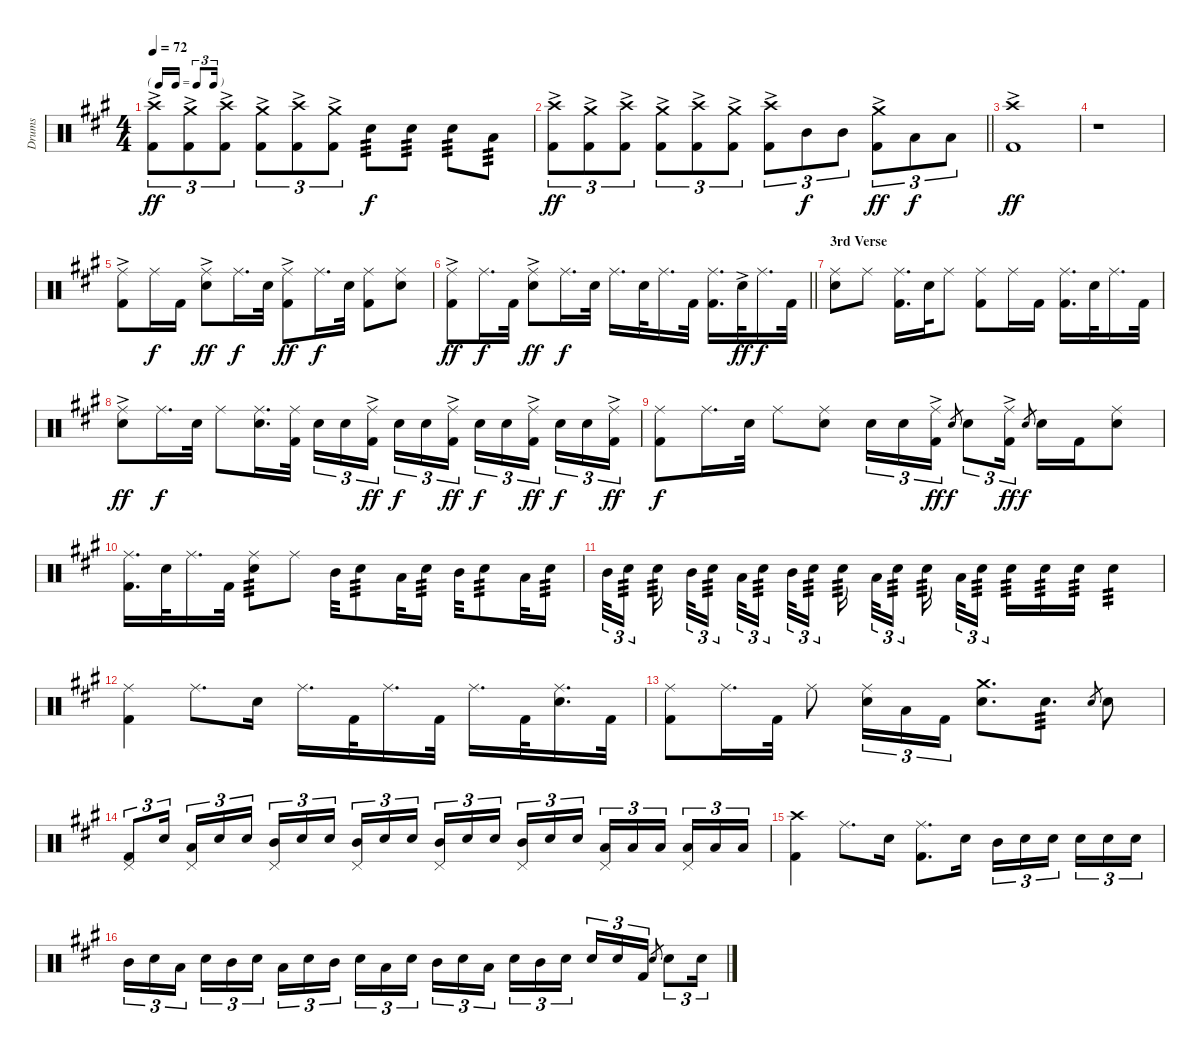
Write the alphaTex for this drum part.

\track ("Drums" "Drums") {instrument percussion}
\staff {score}
\articulation defaults
\ts (4 4)
\tf triplet16th
\tempo 72
\clef neutral
\ks a
("Crash high (hit)" "Kick (hit) 2"{ac}).8{tu (3 2) dy ff} ("Crash medium (hit)" "Kick (hit) 2"{ac}).8{tu (3 2)} ("Crash high (hit)" "Kick (hit) 2"{ac}).8{tu (3 2)} ("Crash medium (hit)" "Kick (hit) 2"{ac}).8{tu (3 2)} ("Crash high (hit)" "Kick (hit) 2"{ac}).8{tu (3 2)} ("Crash medium (hit)" "Kick (hit) 2"{ac}).8{tu (3 2)} "Snare (hit) 2".8{tp 3 dy f} "Snare (hit) 2".8{tp 3} "Snare (hit) 2".8{tp 3} "Low Tom (hit)".8{tp 3} |
\barLineRight lightlight
("Crash high (hit)" "Kick (hit) 2"{ac}).8{tu (3 2) dy ff} ("Crash medium (hit)" "Kick (hit) 2"{ac}).8{tu (3 2)} ("Crash high (hit)" "Kick (hit) 2"{ac}).8{tu (3 2)} ("Crash medium (hit)" "Kick (hit) 2"{ac}).8{tu (3 2)} ("Crash high (hit)" "Kick (hit) 2"{ac}).8{tu (3 2)} ("Crash medium (hit)" "Kick (hit) 2"{ac}).8{tu (3 2)} ("Crash high (hit)" "Kick (hit) 2"{ac}).8{tu (3 2)} "Mid Tom (hit)".8{tu (3 2) dy f} "Mid Tom (hit)".8{tu (3 2)} ("Crash medium (hit)" "Kick (hit) 2"{ac}).8{tu (3 2) dy ff} "Low Tom (hit)".8{tu (3 2) dy f} "Low Tom (hit)".8{tu (3 2)} |
("Crash high (hit)" "Kick (hit) 2"{ac}).1{dy ff} |
r.1 |
("Ride (middle)" "Kick (hit) 2"{ac}).8 "Ride (middle)".16{dy f} "Kick (hit) 2".16 ("Ride (middle)" "Snare (hit) 2"{ac}).8{dy ff} "Ride (middle)".16{d dy f} "Snare (hit) 2".32 ("Ride (middle)" "Kick (hit) 2"{ac}).8{dy ff} "Ride (middle)".16{d dy f} "Snare (hit) 2".32 ("Ride (middle)" "Kick (hit) 2").8 ("Ride (middle)" "Snare (hit) 2").8 |
\barLineRight lightlight
("Ride (middle)" "Kick (hit) 2"{ac}).8{dy ff} "Ride (middle)".16{d dy f} "Kick (hit) 2".32 ("Ride (middle)" "Snare (hit) 2"{ac}).8{dy ff} "Ride (middle)".16{d dy f} "Snare (hit) 2".32 "Ride (middle)".16{d} "Snare (hit) 2".32 "Ride (middle)".16{d} "Kick (hit) 2".32 ("Ride (middle)" "Kick (hit) 2").16{d} "Snare (hit) 2"{ac}.32{dy ff} "Ride (middle)".16{d dy f} "Kick (hit) 2".32 |
\section ("" "3rd Verse")
("Ride (middle)" "Snare (hit) 2").8 "Ride (middle)".8 ("Ride (middle)" "Kick (hit) 2").16{d} "Snare (hit) 2".32 "Ride (middle)".8 ("Ride (middle)" "Kick (hit) 2").8 "Ride (middle)".16 "Kick (hit) 2".16 ("Ride (middle)" "Kick (hit) 2").16{d} "Snare (hit) 2".32 "Ride (middle)".16{d} "Kick (hit) 2".32 |
("Ride (middle)" "Snare (hit) 2"{ac}).8{dy ff} "Ride (middle)".16{d dy f} "Snare (hit) 2".32 "Ride (middle)".8 ("Ride (middle)" "Snare (hit) 2").16{d} ("Ride (middle)" "Kick (hit) 2").32 "Snare (hit) 2".16{tu (3 2)} "Snare (hit) 2".16{tu (3 2)} ("Ride (middle)" "Kick (hit) 2"{ac}).16{tu (3 2) dy ff beam splitsecondary} "Snare (hit) 2".16{tu (3 2) dy f} "Snare (hit) 2".16{tu (3 2)} ("Ride (middle)" "Kick (hit) 2"{ac}).16{tu (3 2) dy ff} "Snare (hit) 2".16{tu (3 2) dy f} "Snare (hit) 2".16{tu (3 2)} ("Ride (middle)" "Kick (hit) 2"{ac}).16{tu (3 2) dy ff beam splitsecondary} "Snare (hit) 2".16{tu (3 2) dy f} "Snare (hit) 2".16{tu (3 2)} ("Ride (middle)" "Kick (hit) 2"{ac}).16{tu (3 2) dy ff} |
("Ride (middle)" "Kick (hit) 2").8{dy f} "Ride (middle)".16{d} "Snare (hit) 2".32 "Ride (middle)".8 ("Ride (middle)" "Snare (hit) 2").8 "Snare (hit) 2".16{tu (3 2)} "Snare (hit) 2".16{tu (3 2)} ("Ride (middle)" "Kick (hit) 2"{ac}).16{tu (3 2) dy ff} "Snare (hit) 2".8{gr dy f} "Snare (hit) 2".8{tu (3 2)} ("Ride (middle)" "Kick (hit) 2"{ac}).16{tu (3 2) dy ff} "Snare (hit) 2".8{gr dy f} "Snare (hit) 2".16 "Kick (hit) 2".16 ("Ride (middle)" "Snare (hit) 2").8 |
("Ride (middle)" "Kick (hit) 2").16{d} "Snare (hit) 2".32 "Ride (middle)".16{d} "Kick (hit) 2".32 ("Ride (middle)" "Snare (hit) 2").8{tp 3} "Ride (middle)".8 "Mid Tom (hit)".32 "Snare (hit) 2".8{tp 3} "Low Tom (hit)".32 "Snare (hit) 2".16{tp 3} "Mid Tom (hit)".32 "Snare (hit) 2".8{tp 3} "Low Tom (hit)".32 "Snare (hit) 2".16{tp 3} |
"Mid Tom (hit)".32{tu (3 2)} "Snare (hit) 2".16{tu (3 2) tp 3 beam splitsecondary} "Snare (hit) 2".16{tp 3 beam splitsecondary} "Mid Tom (hit)".32{tu (3 2)} "Snare (hit) 2".16{tu (3 2) tp 3 beam splitsecondary} "Low Tom (hit)".32{tu (3 2)} "Snare (hit) 2".16{tu (3 2) tp 3} "Mid Tom (hit)".32{tu (3 2)} "Snare (hit) 2".16{tu (3 2) tp 3 beam splitsecondary} "Snare (hit) 2".16{tp 3 beam splitsecondary} "Low Tom (hit)".32{tu (3 2)} "Snare (hit) 2".16{tu (3 2) tp 3 beam splitsecondary} "Snare (hit) 2".16{tp 3} "Low Tom (hit)".32{tu (3 2)} "Snare (hit) 2".16{tu (3 2) tp 3 beam splitsecondary} "Snare (hit) 2".16{tp 3} "Snare (hit) 2".16{tp 3} "Snare (hit) 2".16{tp 3} "Snare (hit) 2".4{tp 3} |
("Ride (middle)" "Kick (hit) 2").4 "Ride (middle)".8{d} "Snare (hit) 2".16 "Ride (middle)".16{d} "Kick (hit) 2".32 "Ride (middle)".16{d} "Kick (hit) 2".32 "Ride (middle)".16{d} "Kick (hit) 2".32 ("Ride (middle)" "Snare (hit) 2").16{d} "Kick (hit) 2".32 |
("Ride (middle)" "Kick (hit) 2").8 "Ride (middle)".16{d} "Kick (hit) 2".32 "Ride (middle)".8 ("Ride (middle)" "Snare (hit) 2").16{tu (3 2)} "Low Floor Tom (hit)".16{tu (3 2)} "Kick (hit) 2".16{tu (3 2)} ("Crash medium (hit)" "Snare (hit) 2").8{d} "Snare (hit) 2".8{d tp 3} "Snare (hit) 2".8{gr} "Snare (hit) 2".8 |
("Pedal Hi-Hat (hit)" "Kick (hit) 2").8{tu (3 2)} "Snare (hit) 2".16{tu (3 2) beam splitsecondary} ("Pedal Hi-Hat (hit)" "Low Tom (hit)").16{tu (3 2)} "Snare (hit) 2".16{tu (3 2)} "Snare (hit) 2".16{tu (3 2)} ("Pedal Hi-Hat (hit)" "Mid Tom (hit)").16{tu (3 2)} "Snare (hit) 2".16{tu (3 2)} "Snare (hit) 2".16{tu (3 2) beam splitsecondary} ("Pedal Hi-Hat (hit)" "Mid Tom (hit)").16{tu (3 2)} "Snare (hit) 2".16{tu (3 2)} "Snare (hit) 2".16{tu (3 2)} ("Pedal Hi-Hat (hit)" "Mid Tom (hit)").16{tu (3 2)} "Snare (hit) 2".16{tu (3 2)} "Snare (hit) 2".16{tu (3 2) beam splitsecondary} ("Pedal Hi-Hat (hit)" "Mid Tom (hit)").16{tu (3 2)} "Snare (hit) 2".16{tu (3 2)} "Snare (hit) 2".16{tu (3 2)} ("Pedal Hi-Hat (hit)" "Low Tom (hit)").16{tu (3 2)} "Low Tom (hit)".16{tu (3 2)} "Low Tom (hit)".16{tu (3 2) beam splitsecondary} ("Pedal Hi-Hat (hit)" "Low Floor Tom (hit)").16{tu (3 2)} "Low Floor Tom (hit)".16{tu (3 2)} "Low Floor Tom (hit)".16{tu (3 2)} |
("Crash high (hit)" "Kick (hit) 2").4 "Ride (middle)".8{d} "Snare (hit) 2".16 ("Ride (middle)" "Kick (hit) 2").8{d} "Snare (hit) 2".16 "Mid Tom (hit)".16{tu (3 2)} "Snare (hit) 2".16{tu (3 2)} "Snare (hit) 2".16{tu (3 2) beam splitsecondary} "Snare (hit) 2".16{tu (3 2)} "Snare (hit) 2".16{tu (3 2)} "Snare (hit) 2".16{tu (3 2)} |
"Mid Tom (hit)".16{tu (3 2)} "Snare (hit) 2".16{tu (3 2)} "Low Tom (hit)".16{tu (3 2) beam splitsecondary} "Snare (hit) 2".16{tu (3 2)} "Mid Tom (hit)".16{tu (3 2)} "Snare (hit) 2".16{tu (3 2)} "Low Tom (hit)".16{tu (3 2)} "Snare (hit) 2".16{tu (3 2)} "Mid Tom (hit)".16{tu (3 2) beam splitsecondary} "Snare (hit) 2".16{tu (3 2)} "Low Tom (hit)".16{tu (3 2)} "Snare (hit) 2".16{tu (3 2)} "Mid Tom (hit)".16{tu (3 2)} "Snare (hit) 2".16{tu (3 2)} "Low Tom (hit)".16{tu (3 2) beam splitsecondary} "Snare (hit) 2".16{tu (3 2)} "Mid Tom (hit)".16{tu (3 2)} "Snare (hit) 2".16{tu (3 2)} "Snare (hit) 2".16{tu (3 2)} "Snare (hit) 2".16{tu (3 2)} "Kick (hit) 2".16{tu (3 2)} "Snare (hit) 2".8{gr} "Snare (hit) 2".8{tu (3 2)} "Snare (hit) 2".16{tu (3 2)}
